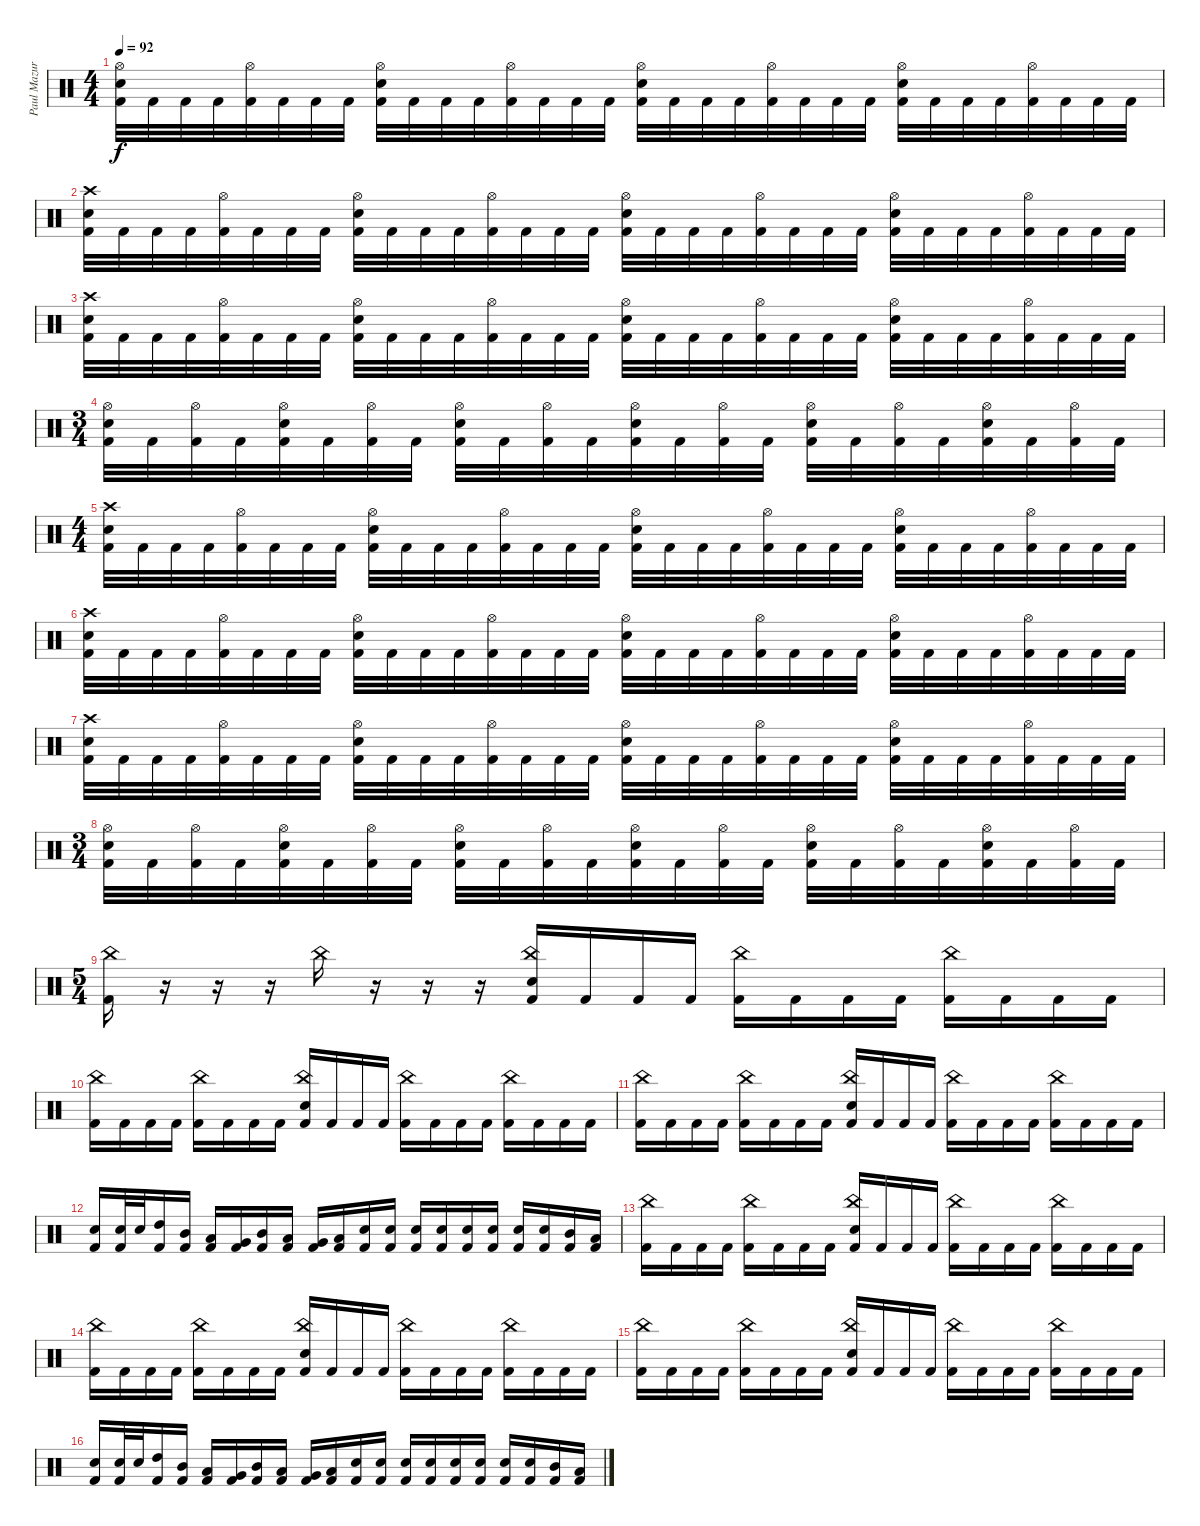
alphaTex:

\track ("Paul Mazurkiewicz" "Paul Mazur") {instrument percussion}
\staff {score}
\articulation defaults
\ts (4 4)
\tempo 92
\clef neutral
\ks c
("Hi-Hat (open)" "Electric Snare (hit)" "Kick (hit) 2").32{dy f} "Kick (hit) 2".32 "Kick (hit) 2".32 "Kick (hit) 2".32 ("Hi-Hat (open)" "Kick (hit) 2").32 "Kick (hit) 2".32 "Kick (hit) 2".32 "Kick (hit) 2".32 ("Hi-Hat (open)" "Electric Snare (hit)" "Kick (hit) 2").32 "Kick (hit) 2".32 "Kick (hit) 2".32 "Kick (hit) 2".32 ("Hi-Hat (open)" "Kick (hit) 2").32 "Kick (hit) 2".32 "Kick (hit) 2".32 "Kick (hit) 2".32 ("Hi-Hat (open)" "Electric Snare (hit)" "Kick (hit) 2").32 "Kick (hit) 2".32 "Kick (hit) 2".32 "Kick (hit) 2".32 ("Hi-Hat (open)" "Kick (hit) 2").32 "Kick (hit) 2".32 "Kick (hit) 2".32 "Kick (hit) 2".32 ("Hi-Hat (open)" "Electric Snare (hit)" "Kick (hit) 2").32 "Kick (hit) 2".32 "Kick (hit) 2".32 "Kick (hit) 2".32 ("Hi-Hat (open)" "Kick (hit) 2").32 "Kick (hit) 2".32 "Kick (hit) 2".32 "Kick (hit) 2".32 |
("Crash high (hit)" "Electric Snare (hit)" "Kick (hit) 2").32 "Kick (hit) 2".32 "Kick (hit) 2".32 "Kick (hit) 2".32 ("Hi-Hat (open)" "Kick (hit) 2").32 "Kick (hit) 2".32 "Kick (hit) 2".32 "Kick (hit) 2".32 ("Hi-Hat (open)" "Electric Snare (hit)" "Kick (hit) 2").32 "Kick (hit) 2".32 "Kick (hit) 2".32 "Kick (hit) 2".32 ("Hi-Hat (open)" "Kick (hit) 2").32 "Kick (hit) 2".32 "Kick (hit) 2".32 "Kick (hit) 2".32 ("Hi-Hat (open)" "Electric Snare (hit)" "Kick (hit) 2").32 "Kick (hit) 2".32 "Kick (hit) 2".32 "Kick (hit) 2".32 ("Hi-Hat (open)" "Kick (hit) 2").32 "Kick (hit) 2".32 "Kick (hit) 2".32 "Kick (hit) 2".32 ("Hi-Hat (open)" "Electric Snare (hit)" "Kick (hit) 2").32 "Kick (hit) 2".32 "Kick (hit) 2".32 "Kick (hit) 2".32 ("Hi-Hat (open)" "Kick (hit) 2").32 "Kick (hit) 2".32 "Kick (hit) 2".32 "Kick (hit) 2".32 |
("Crash high (hit)" "Electric Snare (hit)" "Kick (hit) 2").32 "Kick (hit) 2".32 "Kick (hit) 2".32 "Kick (hit) 2".32 ("Hi-Hat (open)" "Kick (hit) 2").32 "Kick (hit) 2".32 "Kick (hit) 2".32 "Kick (hit) 2".32 ("Hi-Hat (open)" "Electric Snare (hit)" "Kick (hit) 2").32 "Kick (hit) 2".32 "Kick (hit) 2".32 "Kick (hit) 2".32 ("Hi-Hat (open)" "Kick (hit) 2").32 "Kick (hit) 2".32 "Kick (hit) 2".32 "Kick (hit) 2".32 ("Hi-Hat (open)" "Electric Snare (hit)" "Kick (hit) 2").32 "Kick (hit) 2".32 "Kick (hit) 2".32 "Kick (hit) 2".32 ("Hi-Hat (open)" "Kick (hit) 2").32 "Kick (hit) 2".32 "Kick (hit) 2".32 "Kick (hit) 2".32 ("Hi-Hat (open)" "Electric Snare (hit)" "Kick (hit) 2").32 "Kick (hit) 2".32 "Kick (hit) 2".32 "Kick (hit) 2".32 ("Hi-Hat (open)" "Kick (hit) 2").32 "Kick (hit) 2".32 "Kick (hit) 2".32 "Kick (hit) 2".32 |
\ts (3 4)
("Hi-Hat (open)" "Electric Snare (hit)" "Kick (hit) 2").32 "Kick (hit) 2".32 ("Hi-Hat (open)" "Kick (hit) 2").32 "Kick (hit) 2".32 ("Hi-Hat (open)" "Electric Snare (hit)" "Kick (hit) 2").32 "Kick (hit) 2".32 ("Hi-Hat (open)" "Kick (hit) 2").32 "Kick (hit) 2".32 ("Hi-Hat (open)" "Electric Snare (hit)" "Kick (hit) 2").32 "Kick (hit) 2".32 ("Hi-Hat (open)" "Kick (hit) 2").32 "Kick (hit) 2".32 ("Hi-Hat (open)" "Electric Snare (hit)" "Kick (hit) 2").32 "Kick (hit) 2".32 ("Hi-Hat (open)" "Kick (hit) 2").32 "Kick (hit) 2".32 ("Hi-Hat (open)" "Electric Snare (hit)" "Kick (hit) 2").32 "Kick (hit) 2".32 ("Hi-Hat (open)" "Kick (hit) 2").32 "Kick (hit) 2".32 ("Hi-Hat (open)" "Electric Snare (hit)" "Kick (hit) 2").32 "Kick (hit) 2".32 ("Hi-Hat (open)" "Kick (hit) 2").32 "Kick (hit) 2".32 |
\ts (4 4)
("Crash high (hit)" "Electric Snare (hit)" "Kick (hit) 2").32 "Kick (hit) 2".32 "Kick (hit) 2".32 "Kick (hit) 2".32 ("Hi-Hat (open)" "Kick (hit) 2").32 "Kick (hit) 2".32 "Kick (hit) 2".32 "Kick (hit) 2".32 ("Hi-Hat (open)" "Electric Snare (hit)" "Kick (hit) 2").32 "Kick (hit) 2".32 "Kick (hit) 2".32 "Kick (hit) 2".32 ("Hi-Hat (open)" "Kick (hit) 2").32 "Kick (hit) 2".32 "Kick (hit) 2".32 "Kick (hit) 2".32 ("Hi-Hat (open)" "Electric Snare (hit)" "Kick (hit) 2").32 "Kick (hit) 2".32 "Kick (hit) 2".32 "Kick (hit) 2".32 ("Hi-Hat (open)" "Kick (hit) 2").32 "Kick (hit) 2".32 "Kick (hit) 2".32 "Kick (hit) 2".32 ("Hi-Hat (open)" "Electric Snare (hit)" "Kick (hit) 2").32 "Kick (hit) 2".32 "Kick (hit) 2".32 "Kick (hit) 2".32 ("Hi-Hat (open)" "Kick (hit) 2").32 "Kick (hit) 2".32 "Kick (hit) 2".32 "Kick (hit) 2".32 |
("Crash high (hit)" "Electric Snare (hit)" "Kick (hit) 2").32 "Kick (hit) 2".32 "Kick (hit) 2".32 "Kick (hit) 2".32 ("Hi-Hat (open)" "Kick (hit) 2").32 "Kick (hit) 2".32 "Kick (hit) 2".32 "Kick (hit) 2".32 ("Hi-Hat (open)" "Electric Snare (hit)" "Kick (hit) 2").32 "Kick (hit) 2".32 "Kick (hit) 2".32 "Kick (hit) 2".32 ("Hi-Hat (open)" "Kick (hit) 2").32 "Kick (hit) 2".32 "Kick (hit) 2".32 "Kick (hit) 2".32 ("Hi-Hat (open)" "Electric Snare (hit)" "Kick (hit) 2").32 "Kick (hit) 2".32 "Kick (hit) 2".32 "Kick (hit) 2".32 ("Hi-Hat (open)" "Kick (hit) 2").32 "Kick (hit) 2".32 "Kick (hit) 2".32 "Kick (hit) 2".32 ("Hi-Hat (open)" "Electric Snare (hit)" "Kick (hit) 2").32 "Kick (hit) 2".32 "Kick (hit) 2".32 "Kick (hit) 2".32 ("Hi-Hat (open)" "Kick (hit) 2").32 "Kick (hit) 2".32 "Kick (hit) 2".32 "Kick (hit) 2".32 |
("Crash high (hit)" "Electric Snare (hit)" "Kick (hit) 2").32 "Kick (hit) 2".32 "Kick (hit) 2".32 "Kick (hit) 2".32 ("Hi-Hat (open)" "Kick (hit) 2").32 "Kick (hit) 2".32 "Kick (hit) 2".32 "Kick (hit) 2".32 ("Hi-Hat (open)" "Electric Snare (hit)" "Kick (hit) 2").32 "Kick (hit) 2".32 "Kick (hit) 2".32 "Kick (hit) 2".32 ("Hi-Hat (open)" "Kick (hit) 2").32 "Kick (hit) 2".32 "Kick (hit) 2".32 "Kick (hit) 2".32 ("Hi-Hat (open)" "Electric Snare (hit)" "Kick (hit) 2").32 "Kick (hit) 2".32 "Kick (hit) 2".32 "Kick (hit) 2".32 ("Hi-Hat (open)" "Kick (hit) 2").32 "Kick (hit) 2".32 "Kick (hit) 2".32 "Kick (hit) 2".32 ("Hi-Hat (open)" "Electric Snare (hit)" "Kick (hit) 2").32 "Kick (hit) 2".32 "Kick (hit) 2".32 "Kick (hit) 2".32 ("Hi-Hat (open)" "Kick (hit) 2").32 "Kick (hit) 2".32 "Kick (hit) 2".32 "Kick (hit) 2".32 |
\ts (3 4)
("Hi-Hat (open)" "Electric Snare (hit)" "Kick (hit) 2").32 "Kick (hit) 2".32 ("Hi-Hat (open)" "Kick (hit) 2").32 "Kick (hit) 2".32 ("Hi-Hat (open)" "Electric Snare (hit)" "Kick (hit) 2").32 "Kick (hit) 2".32 ("Hi-Hat (open)" "Kick (hit) 2").32 "Kick (hit) 2".32 ("Hi-Hat (open)" "Electric Snare (hit)" "Kick (hit) 2").32 "Kick (hit) 2".32 ("Hi-Hat (open)" "Kick (hit) 2").32 "Kick (hit) 2".32 ("Hi-Hat (open)" "Electric Snare (hit)" "Kick (hit) 2").32 "Kick (hit) 2".32 ("Hi-Hat (open)" "Kick (hit) 2").32 "Kick (hit) 2".32 ("Hi-Hat (open)" "Electric Snare (hit)" "Kick (hit) 2").32 "Kick (hit) 2".32 ("Hi-Hat (open)" "Kick (hit) 2").32 "Kick (hit) 2".32 ("Hi-Hat (open)" "Electric Snare (hit)" "Kick (hit) 2").32 "Kick (hit) 2".32 ("Hi-Hat (open)" "Kick (hit) 2").32 "Kick (hit) 2".32 |
\ts (5 4)
("China (hit)" "Kick (hit) 2").16 r.16 r.16 r.16 "China (hit)".16 r.16 r.16 r.16 ("China (hit)" "Snare (hit) 2" "Kick (hit) 2").16 "Kick (hit) 2".16 "Kick (hit) 2".16 "Kick (hit) 2".16 ("China (hit)" "Kick (hit) 2").16 "Kick (hit) 2".16 "Kick (hit) 2".16 "Kick (hit) 2".16 ("China (hit)" "Kick (hit) 2").16 "Kick (hit) 2".16 "Kick (hit) 2".16 "Kick (hit) 2".16 |
("China (hit)" "Kick (hit) 2").16 "Kick (hit) 2".16 "Kick (hit) 2".16 "Kick (hit) 2".16 ("China (hit)" "Kick (hit) 2").16 "Kick (hit) 2".16 "Kick (hit) 2".16 "Kick (hit) 2".16 ("China (hit)" "Snare (hit) 2" "Kick (hit) 2").16 "Kick (hit) 2".16 "Kick (hit) 2".16 "Kick (hit) 2".16 ("China (hit)" "Kick (hit) 2").16 "Kick (hit) 2".16 "Kick (hit) 2".16 "Kick (hit) 2".16 ("China (hit)" "Kick (hit) 2").16 "Kick (hit) 2".16 "Kick (hit) 2".16 "Kick (hit) 2".16 |
("China (hit)" "Kick (hit) 2").16 "Kick (hit) 2".16 "Kick (hit) 2".16 "Kick (hit) 2".16 ("China (hit)" "Kick (hit) 2").16 "Kick (hit) 2".16 "Kick (hit) 2".16 "Kick (hit) 2".16 ("China (hit)" "Snare (hit) 2" "Kick (hit) 2").16 "Kick (hit) 2".16 "Kick (hit) 2".16 "Kick (hit) 2".16 ("China (hit)" "Kick (hit) 2").16 "Kick (hit) 2".16 "Kick (hit) 2".16 "Kick (hit) 2".16 ("China (hit)" "Kick (hit) 2").16 "Kick (hit) 2".16 "Kick (hit) 2".16 "Kick (hit) 2".16 |
("Snare (hit) 2" "Kick (hit) 2").16 ("Snare (hit) 2" "Kick (hit) 2").32 "Snare (hit) 2".32 ("High Tom (hit)" "Kick (hit) 2").16 ("Mid Tom (hit)" "Kick (hit) 2").16 ("Low Tom (hit)" "Kick (hit) 2").16 ("Very Low Tom (hit)" "Kick (hit) 2").16 ("Mid Tom (hit)" "Kick (hit) 2").16 ("Low Tom (hit)" "Kick (hit) 2").16 ("Very Low Tom (hit)" "Kick (hit) 2").16 ("Low Floor Tom (hit)" "Kick (hit) 2").16 ("Snare (hit) 2" "Kick (hit) 2").16 ("Snare (hit) 2" "Kick (hit) 2").16 ("Snare (hit) 2" "Kick (hit) 2").16 ("Snare (hit) 2" "Kick (hit) 2").16 ("Snare (hit) 2" "Kick (hit) 2").16 ("Snare (hit) 2" "Kick (hit) 2").16 ("Snare (hit) 2" "Kick (hit) 2").16 ("Snare (hit) 2" "Kick (hit) 2").16 ("Mid Tom (hit)" "Kick (hit) 2").16 ("Low Tom (hit)" "Kick (hit) 2").16 |
("China (hit)" "Kick (hit) 2").16 "Kick (hit) 2".16 "Kick (hit) 2".16 "Kick (hit) 2".16 ("China (hit)" "Kick (hit) 2").16 "Kick (hit) 2".16 "Kick (hit) 2".16 "Kick (hit) 2".16 ("China (hit)" "Snare (hit) 2" "Kick (hit) 2").16 "Kick (hit) 2".16 "Kick (hit) 2".16 "Kick (hit) 2".16 ("China (hit)" "Kick (hit) 2").16 "Kick (hit) 2".16 "Kick (hit) 2".16 "Kick (hit) 2".16 ("China (hit)" "Kick (hit) 2").16 "Kick (hit) 2".16 "Kick (hit) 2".16 "Kick (hit) 2".16 |
("China (hit)" "Kick (hit) 2").16 "Kick (hit) 2".16 "Kick (hit) 2".16 "Kick (hit) 2".16 ("China (hit)" "Kick (hit) 2").16 "Kick (hit) 2".16 "Kick (hit) 2".16 "Kick (hit) 2".16 ("China (hit)" "Snare (hit) 2" "Kick (hit) 2").16 "Kick (hit) 2".16 "Kick (hit) 2".16 "Kick (hit) 2".16 ("China (hit)" "Kick (hit) 2").16 "Kick (hit) 2".16 "Kick (hit) 2".16 "Kick (hit) 2".16 ("China (hit)" "Kick (hit) 2").16 "Kick (hit) 2".16 "Kick (hit) 2".16 "Kick (hit) 2".16 |
("China (hit)" "Kick (hit) 2").16 "Kick (hit) 2".16 "Kick (hit) 2".16 "Kick (hit) 2".16 ("China (hit)" "Kick (hit) 2").16 "Kick (hit) 2".16 "Kick (hit) 2".16 "Kick (hit) 2".16 ("China (hit)" "Snare (hit) 2" "Kick (hit) 2").16 "Kick (hit) 2".16 "Kick (hit) 2".16 "Kick (hit) 2".16 ("China (hit)" "Kick (hit) 2").16 "Kick (hit) 2".16 "Kick (hit) 2".16 "Kick (hit) 2".16 ("China (hit)" "Kick (hit) 2").16 "Kick (hit) 2".16 "Kick (hit) 2".16 "Kick (hit) 2".16 |
("Snare (hit) 2" "Kick (hit) 2").16 ("Snare (hit) 2" "Kick (hit) 2").32 "Snare (hit) 2".32 ("High Tom (hit)" "Kick (hit) 2").16 ("Mid Tom (hit)" "Kick (hit) 2").16 ("Low Tom (hit)" "Kick (hit) 2").16 ("Very Low Tom (hit)" "Kick (hit) 2").16 ("Mid Tom (hit)" "Kick (hit) 2").16 ("Low Tom (hit)" "Kick (hit) 2").16 ("Very Low Tom (hit)" "Kick (hit) 2").16 ("Low Floor Tom (hit)" "Kick (hit) 2").16 ("Snare (hit) 2" "Kick (hit) 2").16 ("Snare (hit) 2" "Kick (hit) 2").16 ("Snare (hit) 2" "Kick (hit) 2").16 ("Snare (hit) 2" "Kick (hit) 2").16 ("Snare (hit) 2" "Kick (hit) 2").16 ("Snare (hit) 2" "Kick (hit) 2").16 ("Snare (hit) 2" "Kick (hit) 2").16 ("Snare (hit) 2" "Kick (hit) 2").16 ("Mid Tom (hit)" "Kick (hit) 2").16 ("Low Tom (hit)" "Kick (hit) 2").16
